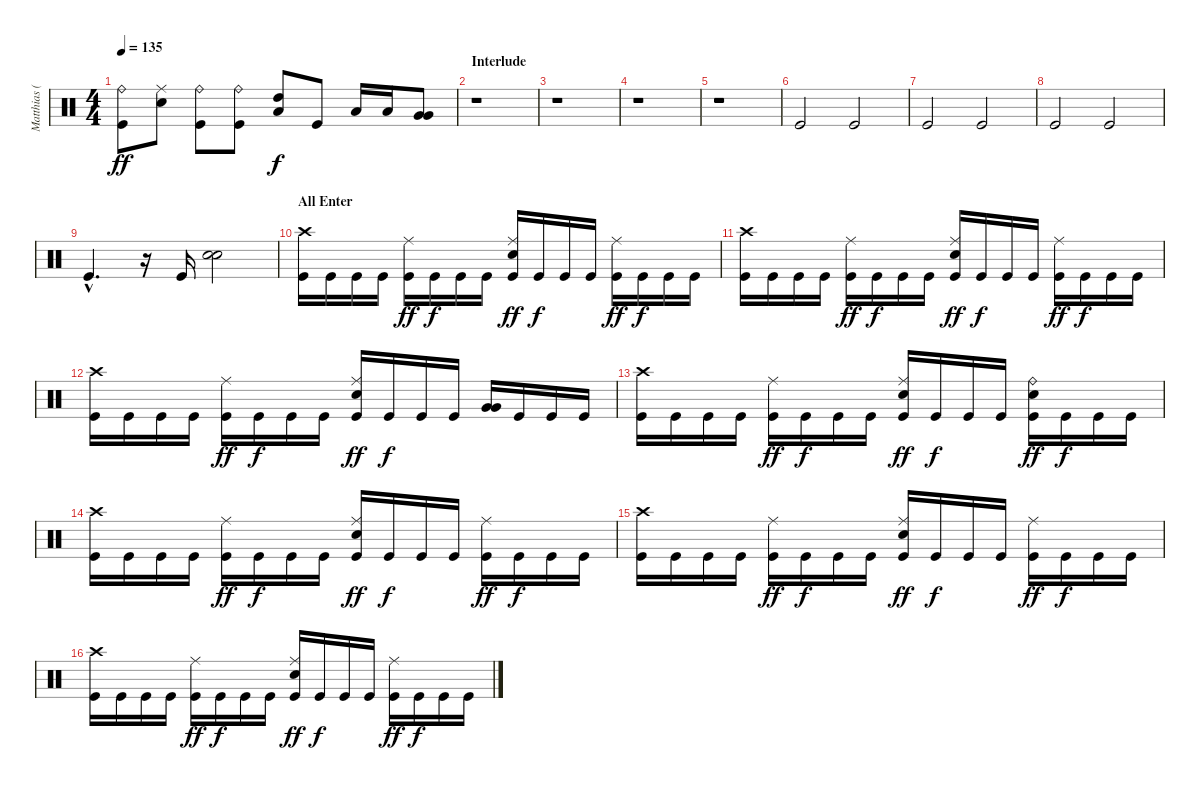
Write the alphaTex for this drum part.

\track ("Matthias (Drums)" "Matthias (") {instrument percussion}
\staff {score}
\articulation defaults
\ts (4 4)
\tempo 135
\clef neutral
\ks c
("Ride (bell)" "Kick (hit)").8{dy ff} ("Ride (middle)" "Electric Snare (hit)").8 ("Ride (bell)" "Kick (hit)").8 ("Ride (bell)" "Kick (hit)").8 ("High Tom (hit)" "Low Tom (hit)").8{bu 120 dy f} "Kick (hit)".8 "Low Tom (hit)".16 "Low Tom (hit)".16 ("Very Low Tom (hit)" "Very Low Tom (hit)").8{bu 120} |
\section ("" "Interlude")
r.1 |
r.1 |
r.1 |
r.1 |
"Kick (hit)".2 "Kick (hit)".2 |
"Kick (hit)".2 "Kick (hit)".2 |
"Kick (hit)".2 "Kick (hit)".2 |
"Kick (hit)"{hac}.4{d} r.16 "Kick (hit)".16 ("Electric Snare (hit)" "Electric Snare (hit)").2{bu 120} |
\section ("" "All Enter")
("Crash high (hit)" "Kick (hit)").16 "Kick (hit)".16 "Kick (hit)".16 "Kick (hit)".16 ("Ride (middle)" "Kick (hit)").16{dy ff} "Kick (hit)".16{dy f} "Kick (hit)".16 "Kick (hit)".16 ("Ride (middle)" "Electric Snare (hit)" "Kick (hit)").16{dy ff} "Kick (hit)".16{dy f} "Kick (hit)".16 "Kick (hit)".16 ("Ride (middle)" "Kick (hit)").16{dy ff} "Kick (hit)".16{dy f} "Kick (hit)".16 "Kick (hit)".16 |
("Crash high (hit)" "Kick (hit)").16 "Kick (hit)".16 "Kick (hit)".16 "Kick (hit)".16 ("Ride (middle)" "Kick (hit)").16{dy ff} "Kick (hit)".16{dy f} "Kick (hit)".16 "Kick (hit)".16 ("Ride (middle)" "Electric Snare (hit)" "Kick (hit)").16{dy ff} "Kick (hit)".16{dy f} "Kick (hit)".16 "Kick (hit)".16 ("Ride (middle)" "Kick (hit)").16{dy ff} "Kick (hit)".16{dy f} "Kick (hit)".16 "Kick (hit)".16 |
("Crash high (hit)" "Kick (hit)").16 "Kick (hit)".16 "Kick (hit)".16 "Kick (hit)".16 ("Ride (middle)" "Kick (hit)").16{dy ff} "Kick (hit)".16{dy f} "Kick (hit)".16 "Kick (hit)".16 ("Ride (middle)" "Electric Snare (hit)" "Kick (hit)").16{dy ff} "Kick (hit)".16{dy f} "Kick (hit)".16 "Kick (hit)".16 ("Very Low Tom (hit)" "Very Low Tom (hit)").16{bd 120} "Kick (hit)".16 "Kick (hit)".16 "Kick (hit)".16 |
("Crash high (hit)" "Kick (hit)").16 "Kick (hit)".16 "Kick (hit)".16 "Kick (hit)".16 ("Ride (middle)" "Kick (hit)").16{dy ff} "Kick (hit)".16{dy f} "Kick (hit)".16 "Kick (hit)".16 ("Ride (middle)" "Electric Snare (hit)" "Kick (hit)").16{dy ff} "Kick (hit)".16{dy f} "Kick (hit)".16 "Kick (hit)".16 ("Ride (bell)" "Electric Snare (hit)" "Kick (hit)").16{dy ff} "Kick (hit)".16{dy f} "Kick (hit)".16 "Kick (hit)".16 |
("Crash high (hit)" "Kick (hit)").16 "Kick (hit)".16 "Kick (hit)".16 "Kick (hit)".16 ("Ride (middle)" "Kick (hit)").16{dy ff} "Kick (hit)".16{dy f} "Kick (hit)".16 "Kick (hit)".16 ("Ride (middle)" "Electric Snare (hit)" "Kick (hit)").16{dy ff} "Kick (hit)".16{dy f} "Kick (hit)".16 "Kick (hit)".16 ("Ride (middle)" "Kick (hit)").16{dy ff} "Kick (hit)".16{dy f} "Kick (hit)".16 "Kick (hit)".16 |
("Crash high (hit)" "Kick (hit)").16 "Kick (hit)".16 "Kick (hit)".16 "Kick (hit)".16 ("Ride (middle)" "Kick (hit)").16{dy ff} "Kick (hit)".16{dy f} "Kick (hit)".16 "Kick (hit)".16 ("Ride (middle)" "Electric Snare (hit)" "Kick (hit)").16{dy ff} "Kick (hit)".16{dy f} "Kick (hit)".16 "Kick (hit)".16 ("Ride (middle)" "Kick (hit)").16{dy ff} "Kick (hit)".16{dy f} "Kick (hit)".16 "Kick (hit)".16 |
("Crash high (hit)" "Kick (hit)").16 "Kick (hit)".16 "Kick (hit)".16 "Kick (hit)".16 ("Ride (middle)" "Kick (hit)").16{dy ff} "Kick (hit)".16{dy f} "Kick (hit)".16 "Kick (hit)".16 ("Ride (middle)" "Electric Snare (hit)" "Kick (hit)").16{dy ff} "Kick (hit)".16{dy f} "Kick (hit)".16 "Kick (hit)".16 ("Ride (middle)" "Kick (hit)").16{dy ff} "Kick (hit)".16{dy f} "Kick (hit)".16 "Kick (hit)".16
